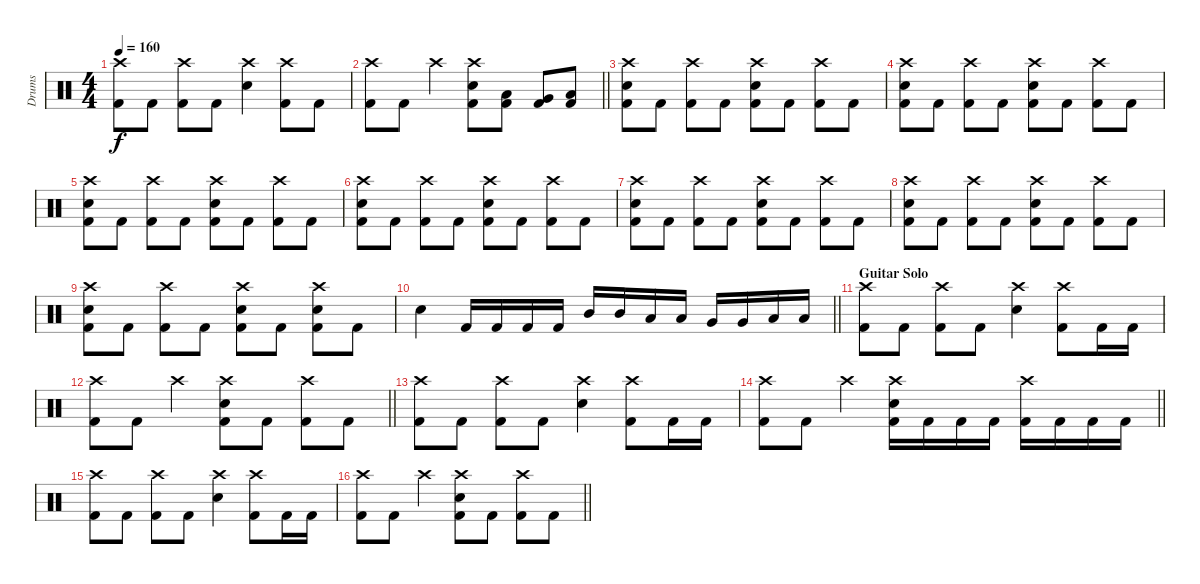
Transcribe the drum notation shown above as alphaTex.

\track ("Drums" "Drums") {instrument percussion}
\staff {score}
\articulation defaults
\ts (4 4)
\tempo 160
\clef neutral
\ks c
("Crash high (hit)" "Kick (hit) 2").8{dy f} "Kick (hit) 2".8 ("Crash high (hit)" "Kick (hit) 2").8 "Kick (hit) 2".8 ("Crash high (hit)" "Electric Snare (hit)").4 ("Crash high (hit)" "Kick (hit) 2").8 "Kick (hit) 2".8 |
\barLineRight lightlight
("Crash high (hit)" "Kick (hit) 2").8 "Kick (hit) 2".8 "Crash high (hit)".4 ("Crash high (hit)" "Electric Snare (hit)" "Kick (hit) 2").8 ("Low Tom (hit)" "Kick (hit) 2").8 ("Very Low Tom (hit)" "Kick (hit) 2").8 ("Low Floor Tom (hit)" "Kick (hit) 2").8 |
("Crash high (hit)" "Electric Snare (hit)" "Kick (hit) 2").8 "Kick (hit) 2".8 ("Crash high (hit)" "Kick (hit) 2").8 "Kick (hit) 2".8 ("Crash high (hit)" "Electric Snare (hit)" "Kick (hit) 2").8 "Kick (hit) 2".8 ("Crash high (hit)" "Kick (hit) 2").8 "Kick (hit) 2".8 |
("Crash high (hit)" "Electric Snare (hit)" "Kick (hit) 2").8 "Kick (hit) 2".8 ("Crash high (hit)" "Kick (hit) 2").8 "Kick (hit) 2".8 ("Crash high (hit)" "Electric Snare (hit)" "Kick (hit) 2").8 "Kick (hit) 2".8 ("Crash high (hit)" "Kick (hit) 2").8 "Kick (hit) 2".8 |
("Crash high (hit)" "Electric Snare (hit)" "Kick (hit) 2").8 "Kick (hit) 2".8 ("Crash high (hit)" "Kick (hit) 2").8 "Kick (hit) 2".8 ("Crash high (hit)" "Electric Snare (hit)" "Kick (hit) 2").8 "Kick (hit) 2".8 ("Crash high (hit)" "Kick (hit) 2").8 "Kick (hit) 2".8 |
("Crash high (hit)" "Electric Snare (hit)" "Kick (hit) 2").8 "Kick (hit) 2".8 ("Crash high (hit)" "Kick (hit) 2").8 "Kick (hit) 2".8 ("Crash high (hit)" "Electric Snare (hit)" "Kick (hit) 2").8 "Kick (hit) 2".8 ("Crash high (hit)" "Kick (hit) 2").8 "Kick (hit) 2".8 |
("Crash high (hit)" "Electric Snare (hit)" "Kick (hit) 2").8 "Kick (hit) 2".8 ("Crash high (hit)" "Kick (hit) 2").8 "Kick (hit) 2".8 ("Crash high (hit)" "Electric Snare (hit)" "Kick (hit) 2").8 "Kick (hit) 2".8 ("Crash high (hit)" "Kick (hit) 2").8 "Kick (hit) 2".8 |
("Crash high (hit)" "Electric Snare (hit)" "Kick (hit) 2").8 "Kick (hit) 2".8 ("Crash high (hit)" "Kick (hit) 2").8 "Kick (hit) 2".8 ("Crash high (hit)" "Electric Snare (hit)" "Kick (hit) 2").8 "Kick (hit) 2".8 ("Crash high (hit)" "Kick (hit) 2").8 "Kick (hit) 2".8 |
("Crash high (hit)" "Electric Snare (hit)" "Kick (hit) 2").8 "Kick (hit) 2".8 ("Crash high (hit)" "Kick (hit) 2").8 "Kick (hit) 2".8 ("Crash high (hit)" "Electric Snare (hit)" "Kick (hit) 2").8 "Kick (hit) 2".8 ("Crash high (hit)" "Electric Snare (hit)" "Kick (hit) 2").8 "Kick (hit) 2".8 |
\barLineRight lightlight "Electric Snare (hit)".4 "Kick (hit) 2".16 "Kick (hit) 2".16 "Kick (hit) 2".16 "Kick (hit) 2".16 "Mid Tom (hit)".16 "Mid Tom (hit)".16 "Low Tom (hit)".16 "Low Tom (hit)".16 "Very Low Tom (hit)".16 "Very Low Tom (hit)".16 "Low Floor Tom (hit)".16 "Low Floor Tom (hit)".16
|
\section ("" "Guitar Solo")
("Crash high (hit)" "Kick (hit) 2").8 "Kick (hit) 2".8 ("Crash high (hit)" "Kick (hit) 2").8 "Kick (hit) 2".8 ("Crash high (hit)" "Electric Snare (hit)").4 ("Crash high (hit)" "Kick (hit) 2").8 "Kick (hit) 2".16 "Kick (hit) 2".16 |
\barLineRight lightlight
("Crash high (hit)" "Kick (hit) 2").8 "Kick (hit) 2".8 "Crash high (hit)".4 ("Crash high (hit)" "Electric Snare (hit)" "Kick (hit) 2").8 "Kick (hit) 2".8 ("Crash high (hit)" "Kick (hit) 2").8 "Kick (hit) 2".8 |
("Crash high (hit)" "Kick (hit) 2").8 "Kick (hit) 2".8 ("Crash high (hit)" "Kick (hit) 2").8 "Kick (hit) 2".8 ("Crash high (hit)" "Electric Snare (hit)").4 ("Crash high (hit)" "Kick (hit) 2").8 "Kick (hit) 2".16 "Kick (hit) 2".16 |
\barLineRight lightlight
("Crash high (hit)" "Kick (hit) 2").8 "Kick (hit) 2".8 "Crash high (hit)".4 ("Crash high (hit)" "Electric Snare (hit)" "Kick (hit) 2").16 "Kick (hit) 2".16 "Kick (hit) 2".16 "Kick (hit) 2".16 ("Crash high (hit)" "Kick (hit) 2").16 "Kick (hit) 2".16 "Kick (hit) 2".16 "Kick (hit) 2".16 |
("Crash high (hit)" "Kick (hit) 2").8 "Kick (hit) 2".8 ("Crash high (hit)" "Kick (hit) 2").8 "Kick (hit) 2".8 ("Crash high (hit)" "Electric Snare (hit)").4 ("Crash high (hit)" "Kick (hit) 2").8 "Kick (hit) 2".16 "Kick (hit) 2".16 |
\barLineRight lightlight
("Crash high (hit)" "Kick (hit) 2").8 "Kick (hit) 2".8 "Crash high (hit)".4 ("Crash high (hit)" "Electric Snare (hit)" "Kick (hit) 2").8 "Kick (hit) 2".8 ("Crash high (hit)" "Kick (hit) 2").8 "Kick (hit) 2".8
